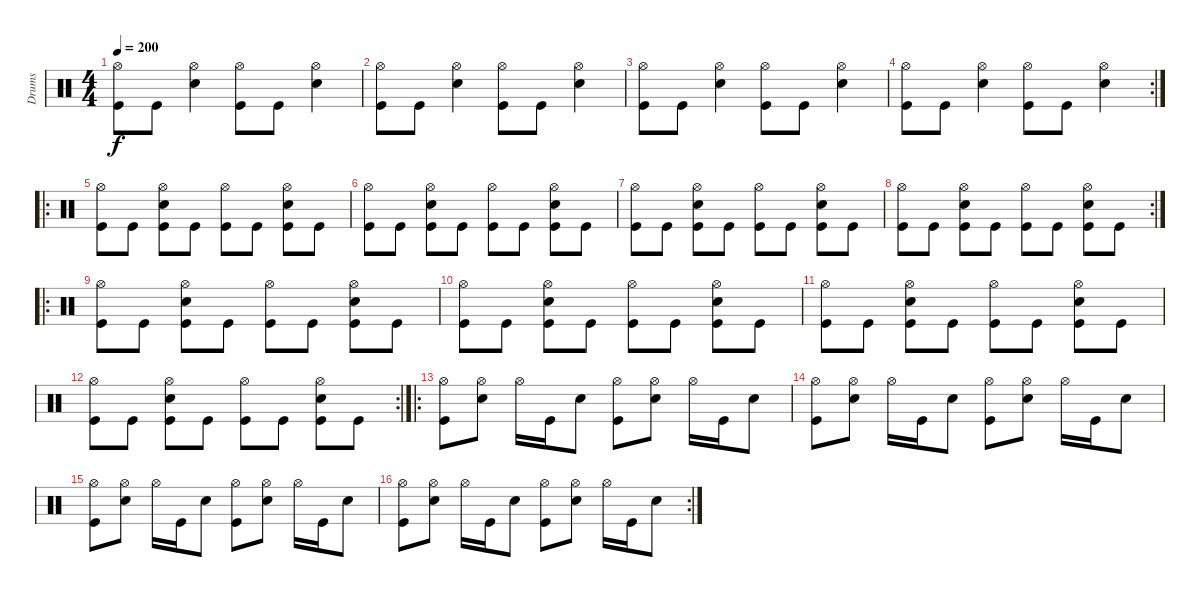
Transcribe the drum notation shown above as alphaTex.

\track ("Drums" "Drums") {instrument percussion}
\staff {score}
\articulation defaults
\ts (4 4)
\tempo 200
\clef neutral
\ks c
("Hi-Hat (open)" "Kick (hit)").8{dy f} "Kick (hit)".8 ("Hi-Hat (open)" "Snare (hit) 2").4 ("Hi-Hat (open)" "Kick (hit)").8 "Kick (hit)".8 ("Hi-Hat (open)" "Snare (hit) 2").4 |
("Hi-Hat (open)" "Kick (hit)").8 "Kick (hit)".8 ("Hi-Hat (open)" "Snare (hit) 2").4 ("Hi-Hat (open)" "Kick (hit)").8 "Kick (hit)".8 ("Hi-Hat (open)" "Snare (hit) 2").4 |
("Hi-Hat (open)" "Kick (hit)").8 "Kick (hit)".8 ("Hi-Hat (open)" "Snare (hit) 2").4 ("Hi-Hat (open)" "Kick (hit)").8 "Kick (hit)".8 ("Hi-Hat (open)" "Snare (hit) 2").4 |
\rc 2
("Hi-Hat (open)" "Kick (hit)").8 "Kick (hit)".8 ("Hi-Hat (open)" "Snare (hit) 2").4 ("Hi-Hat (open)" "Kick (hit)").8 "Kick (hit)".8 ("Hi-Hat (open)" "Snare (hit) 2").4 |
\ro
("Hi-Hat (open)" "Kick (hit)").8 "Kick (hit)".8 ("Hi-Hat (open)" "Snare (hit) 2" "Kick (hit)").8 "Kick (hit)".8 ("Hi-Hat (open)" "Kick (hit)").8 "Kick (hit)".8 ("Hi-Hat (open)" "Snare (hit) 2" "Kick (hit)").8 "Kick (hit)".8 |
("Hi-Hat (open)" "Kick (hit)").8 "Kick (hit)".8 ("Hi-Hat (open)" "Snare (hit) 2" "Kick (hit)").8 "Kick (hit)".8 ("Hi-Hat (open)" "Kick (hit)").8 "Kick (hit)".8 ("Hi-Hat (open)" "Snare (hit) 2" "Kick (hit)").8 "Kick (hit)".8 |
("Hi-Hat (open)" "Kick (hit)").8 "Kick (hit)".8 ("Hi-Hat (open)" "Snare (hit) 2" "Kick (hit)").8 "Kick (hit)".8 ("Hi-Hat (open)" "Kick (hit)").8 "Kick (hit)".8 ("Hi-Hat (open)" "Snare (hit) 2" "Kick (hit)").8 "Kick (hit)".8 |
\rc 2
("Hi-Hat (open)" "Kick (hit)").8 "Kick (hit)".8 ("Hi-Hat (open)" "Snare (hit) 2" "Kick (hit)").8 "Kick (hit)".8 ("Hi-Hat (open)" "Kick (hit)").8 "Kick (hit)".8 ("Hi-Hat (open)" "Snare (hit) 2" "Kick (hit)").8 "Kick (hit)".8 |
\ro
("Hi-Hat (open)" "Kick (hit)").8 "Kick (hit)".8 ("Hi-Hat (open)" "Snare (hit) 2" "Kick (hit)").8 "Kick (hit)".8 ("Hi-Hat (open)" "Kick (hit)").8 "Kick (hit)".8 ("Hi-Hat (open)" "Snare (hit) 2" "Kick (hit)").8 "Kick (hit)".8 |
("Hi-Hat (open)" "Kick (hit)").8 "Kick (hit)".8 ("Hi-Hat (open)" "Snare (hit) 2" "Kick (hit)").8 "Kick (hit)".8 ("Hi-Hat (open)" "Kick (hit)").8 "Kick (hit)".8 ("Hi-Hat (open)" "Snare (hit) 2" "Kick (hit)").8 "Kick (hit)".8 |
("Hi-Hat (open)" "Kick (hit)").8 "Kick (hit)".8 ("Hi-Hat (open)" "Snare (hit) 2" "Kick (hit)").8 "Kick (hit)".8 ("Hi-Hat (open)" "Kick (hit)").8 "Kick (hit)".8 ("Hi-Hat (open)" "Snare (hit) 2" "Kick (hit)").8 "Kick (hit)".8 |
\rc 2
("Hi-Hat (open)" "Kick (hit)").8 "Kick (hit)".8 ("Hi-Hat (open)" "Snare (hit) 2" "Kick (hit)").8 "Kick (hit)".8 ("Hi-Hat (open)" "Kick (hit)").8 "Kick (hit)".8 ("Hi-Hat (open)" "Snare (hit) 2" "Kick (hit)").8 "Kick (hit)".8 |
\ro
("Hi-Hat (open)" "Kick (hit)").8 ("Hi-Hat (open)" "Snare (hit) 2").8 "Hi-Hat (open)".16 "Kick (hit)".16 "Snare (hit) 2".8 ("Hi-Hat (open)" "Kick (hit)").8 ("Hi-Hat (open)" "Snare (hit) 2").8 "Hi-Hat (open)".16 "Kick (hit)".16 "Snare (hit) 2".8 |
("Hi-Hat (open)" "Kick (hit)").8 ("Hi-Hat (open)" "Snare (hit) 2").8 "Hi-Hat (open)".16 "Kick (hit)".16 "Snare (hit) 2".8 ("Hi-Hat (open)" "Kick (hit)").8 ("Hi-Hat (open)" "Snare (hit) 2").8 "Hi-Hat (open)".16 "Kick (hit)".16 "Snare (hit) 2".8 |
("Hi-Hat (open)" "Kick (hit)").8 ("Hi-Hat (open)" "Snare (hit) 2").8 "Hi-Hat (open)".16 "Kick (hit)".16 "Snare (hit) 2".8 ("Hi-Hat (open)" "Kick (hit)").8 ("Hi-Hat (open)" "Snare (hit) 2").8 "Hi-Hat (open)".16 "Kick (hit)".16 "Snare (hit) 2".8 |
\rc 2
("Hi-Hat (open)" "Kick (hit)").8 ("Hi-Hat (open)" "Snare (hit) 2").8 "Hi-Hat (open)".16 "Kick (hit)".16 "Snare (hit) 2".8 ("Hi-Hat (open)" "Kick (hit)").8 ("Hi-Hat (open)" "Snare (hit) 2").8 "Hi-Hat (open)".16 "Kick (hit)".16 "Snare (hit) 2".8
